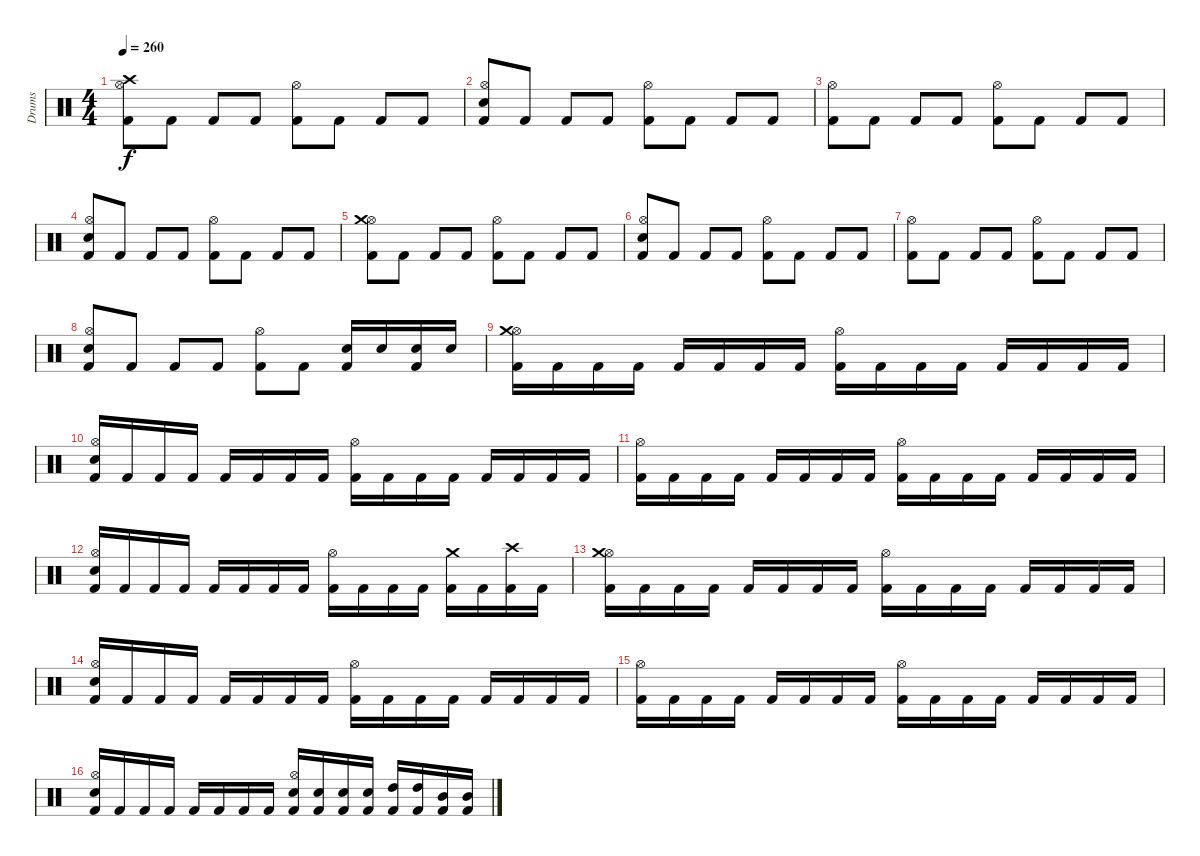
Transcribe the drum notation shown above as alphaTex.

\track ("Drums" "Drums") {instrument percussion}
\staff {score}
\articulation defaults
\ts (4 4)
\tempo 260
\clef neutral
\ks c
("Kick (hit) 2" "Hi-Hat (open)" "Crash high (hit)").8{dy f} "Kick (hit) 2".8 "Kick (hit) 2".8 "Kick (hit) 2".8 ("Kick (hit) 2" "Hi-Hat (open)").8 "Kick (hit) 2".8 "Kick (hit) 2".8 "Kick (hit) 2".8 |
("Kick (hit) 2" "Electric Snare (hit)" "Hi-Hat (open)").8 "Kick (hit) 2".8 "Kick (hit) 2".8 "Kick (hit) 2".8 ("Kick (hit) 2" "Hi-Hat (open)").8 "Kick (hit) 2".8 "Kick (hit) 2".8 "Kick (hit) 2".8 |
("Kick (hit) 2" "Hi-Hat (open)").8 "Kick (hit) 2".8 "Kick (hit) 2".8 "Kick (hit) 2".8 ("Kick (hit) 2" "Hi-Hat (open)").8 "Kick (hit) 2".8 "Kick (hit) 2".8 "Kick (hit) 2".8 |
("Kick (hit) 2" "Electric Snare (hit)" "Hi-Hat (open)").8 "Kick (hit) 2".8 "Kick (hit) 2".8 "Kick (hit) 2".8 ("Kick (hit) 2" "Hi-Hat (open)").8 "Kick (hit) 2".8 "Kick (hit) 2".8 "Kick (hit) 2".8 |
("Kick (hit) 2" "Hi-Hat (open)" "Crash medium (hit)").8 "Kick (hit) 2".8 "Kick (hit) 2".8 "Kick (hit) 2".8 ("Kick (hit) 2" "Hi-Hat (open)").8 "Kick (hit) 2".8 "Kick (hit) 2".8 "Kick (hit) 2".8 |
("Kick (hit) 2" "Electric Snare (hit)" "Hi-Hat (open)").8 "Kick (hit) 2".8 "Kick (hit) 2".8 "Kick (hit) 2".8 ("Kick (hit) 2" "Hi-Hat (open)").8 "Kick (hit) 2".8 "Kick (hit) 2".8 "Kick (hit) 2".8 |
("Kick (hit) 2" "Hi-Hat (open)").8 "Kick (hit) 2".8 "Kick (hit) 2".8 "Kick (hit) 2".8 ("Kick (hit) 2" "Hi-Hat (open)").8 "Kick (hit) 2".8 "Kick (hit) 2".8 "Kick (hit) 2".8 |
("Kick (hit) 2" "Electric Snare (hit)" "Hi-Hat (open)").8 "Kick (hit) 2".8 "Kick (hit) 2".8 "Kick (hit) 2".8 ("Kick (hit) 2" "Hi-Hat (open)").8 "Kick (hit) 2".8 ("Kick (hit) 2" "Electric Snare (hit)").16 "Electric Snare (hit)".16 ("Kick (hit) 2" "Electric Snare (hit)").16 "Electric Snare (hit)".16 |
("Kick (hit) 2" "Hi-Hat (open)" "Crash medium (hit)").16 "Kick (hit) 2".16 "Kick (hit) 2".16 "Kick (hit) 2".16 "Kick (hit) 2".16 "Kick (hit) 2".16 "Kick (hit) 2".16 "Kick (hit) 2".16 ("Kick (hit) 2" "Hi-Hat (open)").16 "Kick (hit) 2".16 "Kick (hit) 2".16 "Kick (hit) 2".16 "Kick (hit) 2".16 "Kick (hit) 2".16 "Kick (hit) 2".16 "Kick (hit) 2".16 |
("Kick (hit) 2" "Electric Snare (hit)" "Hi-Hat (open)").16 "Kick (hit) 2".16 "Kick (hit) 2".16 "Kick (hit) 2".16 "Kick (hit) 2".16 "Kick (hit) 2".16 "Kick (hit) 2".16 "Kick (hit) 2".16 ("Kick (hit) 2" "Hi-Hat (open)").16 "Kick (hit) 2".16 "Kick (hit) 2".16 "Kick (hit) 2".16 "Kick (hit) 2".16 "Kick (hit) 2".16 "Kick (hit) 2".16 "Kick (hit) 2".16 |
("Kick (hit) 2" "Hi-Hat (open)").16 "Kick (hit) 2".16 "Kick (hit) 2".16 "Kick (hit) 2".16 "Kick (hit) 2".16 "Kick (hit) 2".16 "Kick (hit) 2".16 "Kick (hit) 2".16 ("Kick (hit) 2" "Hi-Hat (open)").16 "Kick (hit) 2".16 "Kick (hit) 2".16 "Kick (hit) 2".16 "Kick (hit) 2".16 "Kick (hit) 2".16 "Kick (hit) 2".16 "Kick (hit) 2".16 |
("Kick (hit) 2" "Electric Snare (hit)" "Hi-Hat (open)").16 "Kick (hit) 2".16 "Kick (hit) 2".16 "Kick (hit) 2".16 "Kick (hit) 2".16 "Kick (hit) 2".16 "Kick (hit) 2".16 "Kick (hit) 2".16 ("Kick (hit) 2" "Hi-Hat (open)").16 "Kick (hit) 2".16 "Kick (hit) 2".16 "Kick (hit) 2".16 ("Kick (hit) 2" "Crash medium (hit)").16 "Kick (hit) 2".16 ("Kick (hit) 2" "Crash high (hit)").16 "Kick (hit) 2".16 |
("Kick (hit) 2" "Hi-Hat (open)" "Crash medium (hit)").16 "Kick (hit) 2".16 "Kick (hit) 2".16 "Kick (hit) 2".16 "Kick (hit) 2".16 "Kick (hit) 2".16 "Kick (hit) 2".16 "Kick (hit) 2".16 ("Kick (hit) 2" "Hi-Hat (open)").16 "Kick (hit) 2".16 "Kick (hit) 2".16 "Kick (hit) 2".16 "Kick (hit) 2".16 "Kick (hit) 2".16 "Kick (hit) 2".16 "Kick (hit) 2".16 |
("Kick (hit) 2" "Electric Snare (hit)" "Hi-Hat (open)").16 "Kick (hit) 2".16 "Kick (hit) 2".16 "Kick (hit) 2".16 "Kick (hit) 2".16 "Kick (hit) 2".16 "Kick (hit) 2".16 "Kick (hit) 2".16 ("Kick (hit) 2" "Hi-Hat (open)").16 "Kick (hit) 2".16 "Kick (hit) 2".16 "Kick (hit) 2".16 "Kick (hit) 2".16 "Kick (hit) 2".16 "Kick (hit) 2".16 "Kick (hit) 2".16 |
("Kick (hit) 2" "Hi-Hat (open)").16 "Kick (hit) 2".16 "Kick (hit) 2".16 "Kick (hit) 2".16 "Kick (hit) 2".16 "Kick (hit) 2".16 "Kick (hit) 2".16 "Kick (hit) 2".16 ("Kick (hit) 2" "Hi-Hat (open)").16 "Kick (hit) 2".16 "Kick (hit) 2".16 "Kick (hit) 2".16 "Kick (hit) 2".16 "Kick (hit) 2".16 "Kick (hit) 2".16 "Kick (hit) 2".16 |
("Kick (hit) 2" "Electric Snare (hit)" "Hi-Hat (open)").16 "Kick (hit) 2".16 "Kick (hit) 2".16 "Kick (hit) 2".16 "Kick (hit) 2".16 "Kick (hit) 2".16 "Kick (hit) 2".16 "Kick (hit) 2".16 ("Kick (hit) 2" "Electric Snare (hit)" "Hi-Hat (open)").16 ("Kick (hit) 2" "Electric Snare (hit)").16 ("Kick (hit) 2" "Electric Snare (hit)").16 ("Kick (hit) 2" "Electric Snare (hit)").16 ("Kick (hit) 2" "High Tom (hit)").16 ("Kick (hit) 2" "High Tom (hit)").16 ("Kick (hit) 2" "Mid Tom (hit)").16 ("Kick (hit) 2" "Mid Tom (hit)").16
